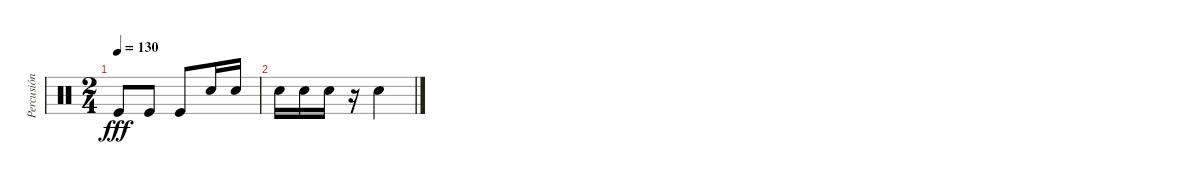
\track ("Percusión" "Percusión") {instrument percussion}
\staff {score}
\articulation defaults
\ts (2 4)
\tempo 130
\clef neutral
\ks c "Kick (hit)".8{dy fff} "Kick (hit)".8 "Kick (hit)".8 "Snare (hit) 2".16 "Snare (hit) 2".16
|
"Snare (hit) 2".16 "Snare (hit) 2".16 "Snare (hit) 2".16 r.16 "Snare (hit) 2".4
